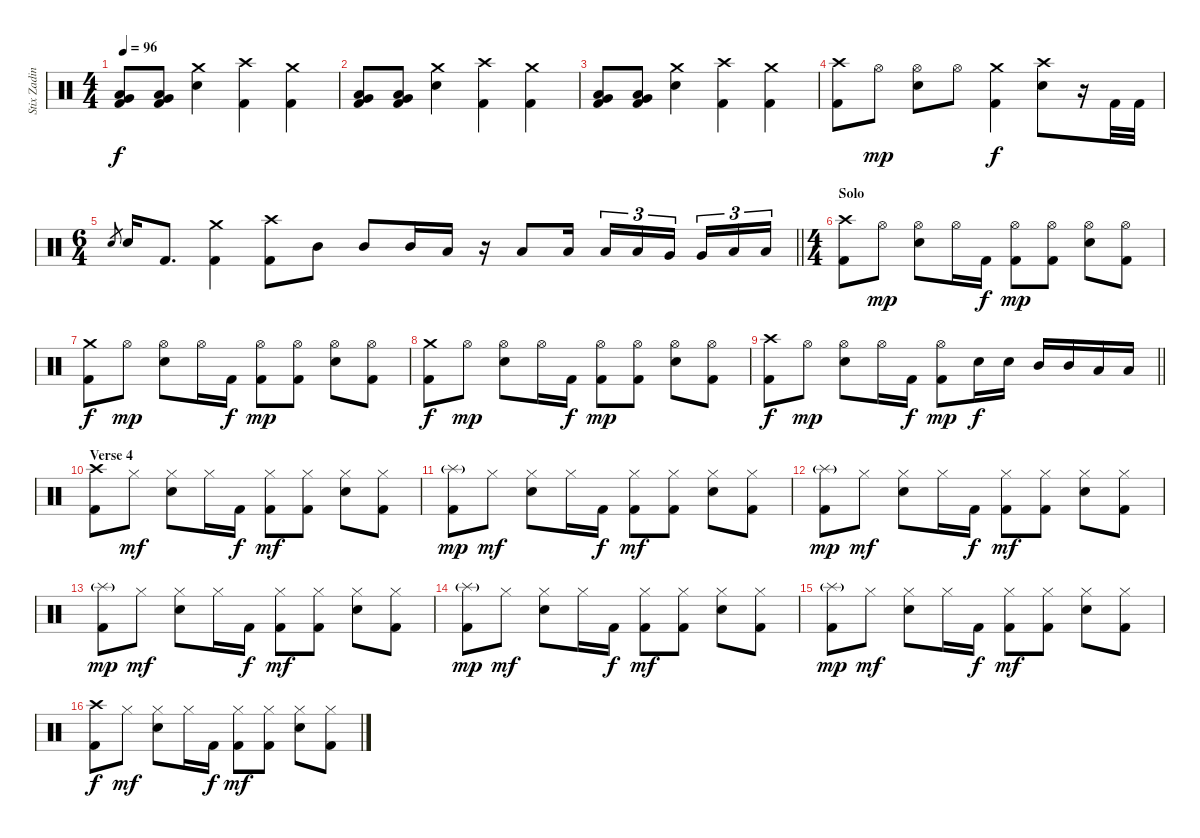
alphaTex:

\track ("Stix Zadinia" "Stix Zadin") {instrument percussion}
\staff {score}
\articulation defaults
\ts (4 4)
\tempo 96
\clef neutral
\ks c
("Very Low Tom (hit)" "Low Floor Tom (hit)" "Kick (hit) 2").8{dy f} ("Very Low Tom (hit)" "Low Floor Tom (hit)" "Kick (hit) 2").8 ("Crash medium (hit)" "Electric Snare (hit)").4 ("Crash high (hit)" "Kick (hit) 2").4 ("Crash medium (hit)" "Kick (hit) 2").4 |
("Very Low Tom (hit)" "Low Floor Tom (hit)" "Kick (hit) 2").8 ("Very Low Tom (hit)" "Low Floor Tom (hit)" "Kick (hit) 2").8 ("Crash medium (hit)" "Electric Snare (hit)").4 ("Crash high (hit)" "Kick (hit) 2").4 ("Crash medium (hit)" "Kick (hit) 2").4 |
("Very Low Tom (hit)" "Low Floor Tom (hit)" "Kick (hit) 2").8 ("Very Low Tom (hit)" "Low Floor Tom (hit)" "Kick (hit) 2").8 ("Crash medium (hit)" "Electric Snare (hit)").4 ("Crash high (hit)" "Kick (hit) 2").4 ("Crash medium (hit)" "Kick (hit) 2").4 |
("Crash high (hit)" "Kick (hit) 2").8 "Hi-Hat (open)".8{dy mp} ("Hi-Hat (open)" "Electric Snare (hit)").8 "Hi-Hat (open)".8 ("Crash medium (hit)" "Kick (hit) 2").4{dy f} ("Crash high (hit)" "Electric Snare (hit)").8 r.16 "Kick (hit) 2".32 "Kick (hit) 2".32 |
\ts (6 4)
\barLineRight lightlight "Electric Snare (hit)"{h}.8{gr} "Electric Snare (hit)".16 "Kick (hit) 2".8{d}
("Crash medium (hit)" "Kick (hit) 2").4 ("Crash high (hit)" "Kick (hit) 2").8 "Mid Tom (hit)".8 "Mid Tom (hit)".8 "Mid Tom (hit)".16 "Low Tom (hit)".16 r.16 "Low Tom (hit)".8 "Low Tom (hit)".16{beam splitsecondary} "Low Tom (hit)".16{tu (3 2)} "Low Tom (hit)".16{tu (3 2)} "Very Low Tom (hit)".16{tu (3 2) beam splitsecondary} "Very Low Tom (hit)".16{tu (3 2)} "Low Floor Tom (hit)".16{tu (3 2)} "Low Floor Tom (hit)".16{tu (3 2)} |
\ts (4 4)
\section ("" "Solo")
("Crash high (hit)" "Kick (hit) 2").8 "Hi-Hat (open)".8{dy mp} ("Hi-Hat (open)" "Electric Snare (hit)").8 "Hi-Hat (open)".16 "Kick (hit) 2".16{dy f} ("Hi-Hat (open)" "Kick (hit) 2").8{dy mp} ("Hi-Hat (open)" "Kick (hit) 2").8 ("Hi-Hat (open)" "Electric Snare (hit)").8 ("Hi-Hat (open)" "Kick (hit) 2").8 |
("Crash medium (hit)" "Kick (hit) 2").8{dy f} "Hi-Hat (open)".8{dy mp} ("Hi-Hat (open)" "Electric Snare (hit)").8 "Hi-Hat (open)".16 "Kick (hit) 2".16{dy f} ("Hi-Hat (open)" "Kick (hit) 2").8{dy mp} ("Hi-Hat (open)" "Kick (hit) 2").8 ("Hi-Hat (open)" "Electric Snare (hit)").8 ("Hi-Hat (open)" "Kick (hit) 2").8 |
("Crash medium (hit)" "Kick (hit) 2").8{dy f} "Hi-Hat (open)".8{dy mp} ("Hi-Hat (open)" "Electric Snare (hit)").8 "Hi-Hat (open)".16 "Kick (hit) 2".16{dy f} ("Hi-Hat (open)" "Kick (hit) 2").8{dy mp} ("Hi-Hat (open)" "Kick (hit) 2").8 ("Hi-Hat (open)" "Electric Snare (hit)").8 ("Hi-Hat (open)" "Kick (hit) 2").8 |
\barLineRight lightlight
("Crash high (hit)" "Kick (hit) 2").8{dy f} "Hi-Hat (open)".8{dy mp} ("Hi-Hat (open)" "Electric Snare (hit)").8 "Hi-Hat (open)".16 "Kick (hit) 2".16{dy f} ("Hi-Hat (open)" "Kick (hit) 2").8{dy mp} "Electric Snare (hit)".16{dy f} "Electric Snare (hit)".16 "Mid Tom (hit)".16 "Mid Tom (hit)".16 "Low Tom (hit)".16 "Low Tom (hit)".16 |
\section ("" "Verse 4")
("Crash high (hit)" "Kick (hit) 2").8 "Hi-Hat (closed)".8{dy mf} ("Hi-Hat (closed)" "Electric Snare (hit)").8 "Hi-Hat (closed)".16 "Kick (hit) 2".16{dy f} ("Hi-Hat (closed)" "Kick (hit) 2").8{dy mf} ("Hi-Hat (closed)" "Kick (hit) 2").8 ("Hi-Hat (closed)" "Electric Snare (hit)").8 ("Hi-Hat (closed)" "Kick (hit) 2").8 |
("Splash (hit)"{g} "Kick (hit) 2").8{dy mp} "Hi-Hat (closed)".8{dy mf} ("Hi-Hat (closed)" "Electric Snare (hit)").8 "Hi-Hat (closed)".16 "Kick (hit) 2".16{dy f} ("Hi-Hat (closed)" "Kick (hit) 2").8{dy mf} ("Hi-Hat (closed)" "Kick (hit) 2").8 ("Hi-Hat (closed)" "Electric Snare (hit)").8 ("Hi-Hat (closed)" "Kick (hit) 2").8 |
("Splash (hit)"{g} "Kick (hit) 2").8{dy mp} "Hi-Hat (closed)".8{dy mf} ("Hi-Hat (closed)" "Electric Snare (hit)").8 "Hi-Hat (closed)".16 "Kick (hit) 2".16{dy f} ("Hi-Hat (closed)" "Kick (hit) 2").8{dy mf} ("Hi-Hat (closed)" "Kick (hit) 2").8 ("Hi-Hat (closed)" "Electric Snare (hit)").8 ("Hi-Hat (closed)" "Kick (hit) 2").8 |
("Splash (hit)"{g} "Kick (hit) 2").8{dy mp} "Hi-Hat (closed)".8{dy mf} ("Hi-Hat (closed)" "Electric Snare (hit)").8 "Hi-Hat (closed)".16 "Kick (hit) 2".16{dy f} ("Hi-Hat (closed)" "Kick (hit) 2").8{dy mf} ("Hi-Hat (closed)" "Kick (hit) 2").8 ("Hi-Hat (closed)" "Electric Snare (hit)").8 ("Hi-Hat (closed)" "Kick (hit) 2").8 |
("Splash (hit)"{g} "Kick (hit) 2").8{dy mp} "Hi-Hat (closed)".8{dy mf} ("Hi-Hat (closed)" "Electric Snare (hit)").8 "Hi-Hat (closed)".16 "Kick (hit) 2".16{dy f} ("Hi-Hat (closed)" "Kick (hit) 2").8{dy mf} ("Hi-Hat (closed)" "Kick (hit) 2").8 ("Hi-Hat (closed)" "Electric Snare (hit)").8 ("Hi-Hat (closed)" "Kick (hit) 2").8 |
("Splash (hit)"{g} "Kick (hit) 2").8{dy mp} "Hi-Hat (closed)".8{dy mf} ("Hi-Hat (closed)" "Electric Snare (hit)").8 "Hi-Hat (closed)".16 "Kick (hit) 2".16{dy f} ("Hi-Hat (closed)" "Kick (hit) 2").8{dy mf} ("Hi-Hat (closed)" "Kick (hit) 2").8 ("Hi-Hat (closed)" "Electric Snare (hit)").8 ("Hi-Hat (closed)" "Kick (hit) 2").8 |
("Crash high (hit)" "Kick (hit) 2").8{dy f} "Hi-Hat (closed)".8{dy mf} ("Hi-Hat (closed)" "Electric Snare (hit)").8 "Hi-Hat (closed)".16 "Kick (hit) 2".16{dy f} ("Hi-Hat (closed)" "Kick (hit) 2").8{dy mf} ("Hi-Hat (closed)" "Kick (hit) 2").8 ("Hi-Hat (closed)" "Electric Snare (hit)").8 ("Hi-Hat (closed)" "Kick (hit) 2").8
